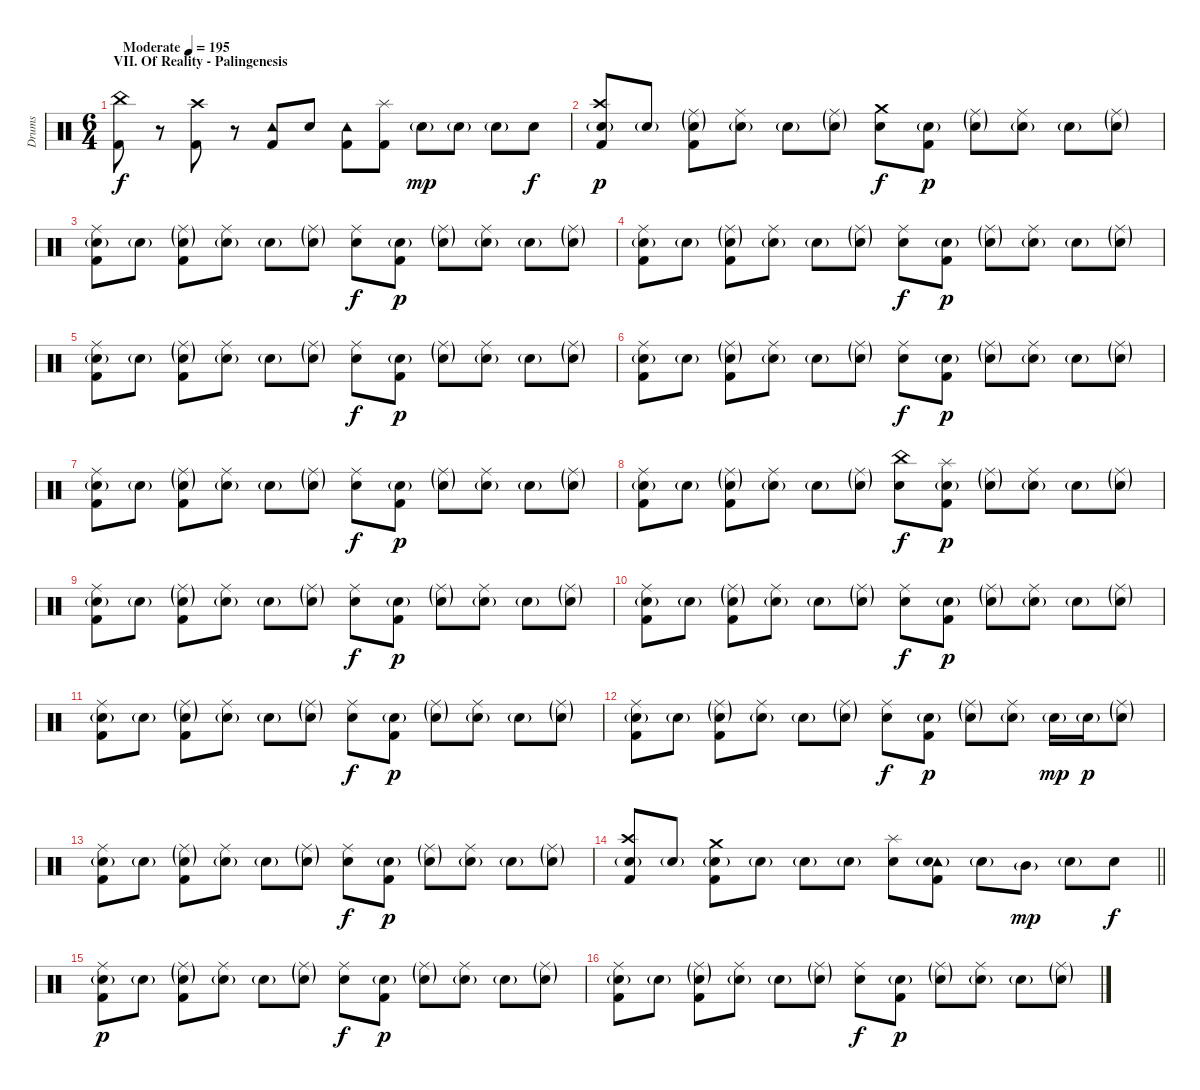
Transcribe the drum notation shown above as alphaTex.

\track ("Drums" "Drums") {instrument percussion}
\staff {score}
\articulation defaults
\ts (6 4)
\section ("" "VII. Of Reality - Palingenesis")
\tempo (195 "Moderate")
\clef neutral
\ks c
("China (hit)" "Kick (hit) 2").8{dy f} r.8 ("Crash high (hit)" "Kick (hit) 2").8 r.8 ("Tambourine (hit)" "Kick (hit) 2").8 "Electric Snare (hit)".8 ("Tambourine (hit)" "Kick (hit) 2").8 ("Splash (hit)" "Kick (hit) 2").8 "Electric Snare (hit)"{g}.8{dy mp} "Electric Snare (hit)"{g}.8 "Electric Snare (hit)"{g}.8 "Electric Snare (hit)".8{dy f} |
("Crash high (hit)" "Electric Snare (hit)"{g} "Kick (hit) 2").8{dy p} "Electric Snare (hit)"{g}.8 ("Ride (middle)"{g} "Electric Snare (hit)"{g} "Kick (hit) 2").8 ("Ride (middle)" "Electric Snare (hit)"{g}).8 "Electric Snare (hit)"{g}.8 ("Ride (middle)"{g} "Electric Snare (hit)"{g}).8 ("Crash medium (hit)" "Electric Snare (hit)").8{dy f} ("Electric Snare (hit)"{g} "Kick (hit) 2").8{dy p} ("Ride (middle)"{g} "Electric Snare (hit)"{g}).8 ("Ride (middle)" "Electric Snare (hit)"{g}).8 "Electric Snare (hit)"{g}.8 ("Ride (middle)"{g} "Electric Snare (hit)"{g}).8 |
("Ride (middle)" "Electric Snare (hit)"{g} "Kick (hit) 2").8 "Electric Snare (hit)"{g}.8 ("Ride (middle)"{g} "Electric Snare (hit)"{g} "Kick (hit) 2").8 ("Ride (middle)" "Electric Snare (hit)"{g}).8 "Electric Snare (hit)"{g}.8 ("Ride (middle)"{g} "Electric Snare (hit)"{g}).8 ("Ride (middle)" "Electric Snare (hit)").8{dy f} ("Electric Snare (hit)"{g} "Kick (hit) 2").8{dy p} ("Ride (middle)"{g} "Electric Snare (hit)"{g}).8 ("Ride (middle)" "Electric Snare (hit)"{g}).8 "Electric Snare (hit)"{g}.8 ("Ride (middle)"{g} "Electric Snare (hit)"{g}).8 |
("Ride (middle)" "Electric Snare (hit)"{g} "Kick (hit) 2").8 "Electric Snare (hit)"{g}.8 ("Ride (middle)"{g} "Electric Snare (hit)"{g} "Kick (hit) 2").8 ("Ride (middle)" "Electric Snare (hit)"{g}).8 "Electric Snare (hit)"{g}.8 ("Ride (middle)"{g} "Electric Snare (hit)"{g}).8 ("Ride (middle)" "Electric Snare (hit)").8{dy f} ("Electric Snare (hit)"{g} "Kick (hit) 2").8{dy p} ("Ride (middle)"{g} "Electric Snare (hit)"{g}).8 ("Ride (middle)" "Electric Snare (hit)"{g}).8 "Electric Snare (hit)"{g}.8 ("Ride (middle)"{g} "Electric Snare (hit)"{g}).8 |
("Ride (middle)" "Electric Snare (hit)"{g} "Kick (hit) 2").8 "Electric Snare (hit)"{g}.8 ("Ride (middle)"{g} "Electric Snare (hit)"{g} "Kick (hit) 2").8 ("Ride (middle)" "Electric Snare (hit)"{g}).8 "Electric Snare (hit)"{g}.8 ("Ride (middle)"{g} "Electric Snare (hit)"{g}).8 ("Ride (middle)" "Electric Snare (hit)").8{dy f} ("Electric Snare (hit)"{g} "Kick (hit) 2").8{dy p} ("Ride (middle)"{g} "Electric Snare (hit)"{g}).8 ("Ride (middle)" "Electric Snare (hit)"{g}).8 "Electric Snare (hit)"{g}.8 ("Ride (middle)"{g} "Electric Snare (hit)"{g}).8 |
("Ride (middle)" "Electric Snare (hit)"{g} "Kick (hit) 2").8 "Electric Snare (hit)"{g}.8 ("Ride (middle)"{g} "Electric Snare (hit)"{g} "Kick (hit) 2").8 ("Ride (middle)" "Electric Snare (hit)"{g}).8 "Electric Snare (hit)"{g}.8 ("Ride (middle)"{g} "Electric Snare (hit)"{g}).8 ("Ride (middle)" "Electric Snare (hit)").8{dy f} ("Electric Snare (hit)"{g} "Kick (hit) 2").8{dy p} ("Ride (middle)"{g} "Electric Snare (hit)"{g}).8 ("Ride (middle)" "Electric Snare (hit)"{g}).8 "Electric Snare (hit)"{g}.8 ("Ride (middle)"{g} "Electric Snare (hit)"{g}).8 |
("Ride (middle)" "Electric Snare (hit)"{g} "Kick (hit) 2").8 "Electric Snare (hit)"{g}.8 ("Ride (middle)"{g} "Electric Snare (hit)"{g} "Kick (hit) 2").8 ("Ride (middle)" "Electric Snare (hit)"{g}).8 "Electric Snare (hit)"{g}.8 ("Ride (middle)"{g} "Electric Snare (hit)"{g}).8 ("Ride (middle)" "Electric Snare (hit)").8{dy f} ("Electric Snare (hit)"{g} "Kick (hit) 2").8{dy p} ("Ride (middle)"{g} "Electric Snare (hit)"{g}).8 ("Ride (middle)" "Electric Snare (hit)"{g}).8 "Electric Snare (hit)"{g}.8 ("Ride (middle)"{g} "Electric Snare (hit)"{g}).8 |
("Ride (middle)" "Electric Snare (hit)"{g} "Kick (hit) 2").8 "Electric Snare (hit)"{g}.8 ("Ride (middle)"{g} "Electric Snare (hit)"{g} "Kick (hit) 2").8 ("Ride (middle)" "Electric Snare (hit)"{g}).8 "Electric Snare (hit)"{g}.8 ("Ride (middle)"{g} "Electric Snare (hit)"{g}).8 ("China (hit)" "Electric Snare (hit)").8{dy f} ("Splash (hit)" "Electric Snare (hit)"{g} "Kick (hit) 2").8{dy p} ("Ride (middle)"{g} "Electric Snare (hit)"{g}).8 ("Ride (middle)" "Electric Snare (hit)"{g}).8 "Electric Snare (hit)"{g}.8 ("Ride (middle)"{g} "Electric Snare (hit)"{g}).8 |
("Ride (middle)" "Electric Snare (hit)"{g} "Kick (hit) 2").8 "Electric Snare (hit)"{g}.8 ("Ride (middle)"{g} "Electric Snare (hit)"{g} "Kick (hit) 2").8 ("Ride (middle)" "Electric Snare (hit)"{g}).8 "Electric Snare (hit)"{g}.8 ("Ride (middle)"{g} "Electric Snare (hit)"{g}).8 ("Ride (middle)" "Electric Snare (hit)").8{dy f} ("Electric Snare (hit)"{g} "Kick (hit) 2").8{dy p} ("Ride (middle)"{g} "Electric Snare (hit)"{g}).8 ("Ride (middle)" "Electric Snare (hit)"{g}).8 "Electric Snare (hit)"{g}.8 ("Ride (middle)"{g} "Electric Snare (hit)"{g}).8 |
("Ride (middle)" "Electric Snare (hit)"{g} "Kick (hit) 2").8 "Electric Snare (hit)"{g}.8 ("Ride (middle)"{g} "Electric Snare (hit)"{g} "Kick (hit) 2").8 ("Ride (middle)" "Electric Snare (hit)"{g}).8 "Electric Snare (hit)"{g}.8 ("Ride (middle)"{g} "Electric Snare (hit)"{g}).8 ("Ride (middle)" "Electric Snare (hit)").8{dy f} ("Electric Snare (hit)"{g} "Kick (hit) 2").8{dy p} ("Ride (middle)"{g} "Electric Snare (hit)"{g}).8 ("Ride (middle)" "Electric Snare (hit)"{g}).8 "Electric Snare (hit)"{g}.8 ("Ride (middle)"{g} "Electric Snare (hit)"{g}).8 |
("Ride (middle)" "Electric Snare (hit)"{g} "Kick (hit) 2").8 "Electric Snare (hit)"{g}.8 ("Ride (middle)"{g} "Electric Snare (hit)"{g} "Kick (hit) 2").8 ("Ride (middle)" "Electric Snare (hit)"{g}).8 "Electric Snare (hit)"{g}.8 ("Ride (middle)"{g} "Electric Snare (hit)"{g}).8 ("Ride (middle)" "Electric Snare (hit)").8{dy f} ("Electric Snare (hit)"{g} "Kick (hit) 2").8{dy p} ("Ride (middle)"{g} "Electric Snare (hit)"{g}).8 ("Ride (middle)" "Electric Snare (hit)"{g}).8 "Electric Snare (hit)"{g}.8 ("Ride (middle)"{g} "Electric Snare (hit)"{g}).8 |
("Ride (middle)" "Electric Snare (hit)"{g} "Kick (hit) 2").8 "Electric Snare (hit)"{g}.8 ("Ride (middle)"{g} "Electric Snare (hit)"{g} "Kick (hit) 2").8 ("Ride (middle)" "Electric Snare (hit)"{g}).8 "Electric Snare (hit)"{g}.8 ("Ride (middle)"{g} "Electric Snare (hit)"{g}).8 ("Ride (middle)" "Electric Snare (hit)").8{dy f} ("Electric Snare (hit)"{g} "Kick (hit) 2").8{dy p} ("Ride (middle)"{g} "Electric Snare (hit)"{g}).8 ("Ride (middle)" "Electric Snare (hit)"{g}).8 "Electric Snare (hit)"{g}.16{dy mp} "Electric Snare (hit)"{g}.16{dy p} ("Ride (middle)"{g} "Electric Snare (hit)"{g}).8 |
("Ride (middle)" "Electric Snare (hit)"{g} "Kick (hit) 2").8 "Electric Snare (hit)"{g}.8 ("Ride (middle)"{g} "Electric Snare (hit)"{g} "Kick (hit) 2").8 ("Ride (middle)" "Electric Snare (hit)"{g}).8 "Electric Snare (hit)"{g}.8 ("Ride (middle)"{g} "Electric Snare (hit)"{g}).8 ("Ride (middle)" "Electric Snare (hit)").8{dy f} ("Electric Snare (hit)"{g} "Kick (hit) 2").8{dy p} ("Ride (middle)"{g} "Electric Snare (hit)"{g}).8 ("Ride (middle)" "Electric Snare (hit)"{g}).8 "Electric Snare (hit)"{g}.8 ("Ride (middle)"{g} "Electric Snare (hit)"{g}).8 |
\barLineRight lightlight
("Crash high (hit)" "Electric Snare (hit)"{g} "Kick (hit) 2").8 "Electric Snare (hit)"{g}.8 ("Crash medium (hit)" "Electric Snare (hit)"{g} "Kick (hit) 2").8 "Electric Snare (hit)"{g}.8 "Electric Snare (hit)"{g}.8 "Electric Snare (hit)"{g}.8 ("Splash (hit)" "Electric Snare (hit)").8 ("Tambourine (hit)" "Electric Snare (hit)"{g} "Kick (hit) 2").8 "Electric Snare (hit)"{g}.8 "Mid Tom (hit)"{g}.8{dy mp} "Electric Snare (hit)"{g}.8 "Electric Snare (hit)".8{dy f} |
\section ("" "")
("Ride (middle)" "Electric Snare (hit)"{g} "Kick (hit) 2").8{dy p} "Electric Snare (hit)"{g}.8 ("Ride (middle)"{g} "Electric Snare (hit)"{g} "Kick (hit) 2").8 ("Ride (middle)" "Electric Snare (hit)"{g}).8 "Electric Snare (hit)"{g}.8 ("Ride (middle)"{g} "Electric Snare (hit)"{g}).8 ("Ride (middle)" "Electric Snare (hit)").8{dy f} ("Electric Snare (hit)"{g} "Kick (hit) 2").8{dy p} ("Ride (middle)"{g} "Electric Snare (hit)"{g}).8 ("Ride (middle)" "Electric Snare (hit)"{g}).8 "Electric Snare (hit)"{g}.8 ("Ride (middle)"{g} "Electric Snare (hit)"{g}).8 |
("Ride (middle)" "Electric Snare (hit)"{g} "Kick (hit) 2").8 "Electric Snare (hit)"{g}.8 ("Ride (middle)"{g} "Electric Snare (hit)"{g} "Kick (hit) 2").8 ("Ride (middle)" "Electric Snare (hit)"{g}).8 "Electric Snare (hit)"{g}.8 ("Ride (middle)"{g} "Electric Snare (hit)"{g}).8 ("Ride (middle)" "Electric Snare (hit)").8{dy f} ("Electric Snare (hit)"{g} "Kick (hit) 2").8{dy p} ("Ride (middle)"{g} "Electric Snare (hit)"{g}).8 ("Ride (middle)" "Electric Snare (hit)"{g}).8 "Electric Snare (hit)"{g}.8 ("Ride (middle)"{g} "Electric Snare (hit)"{g}).8
